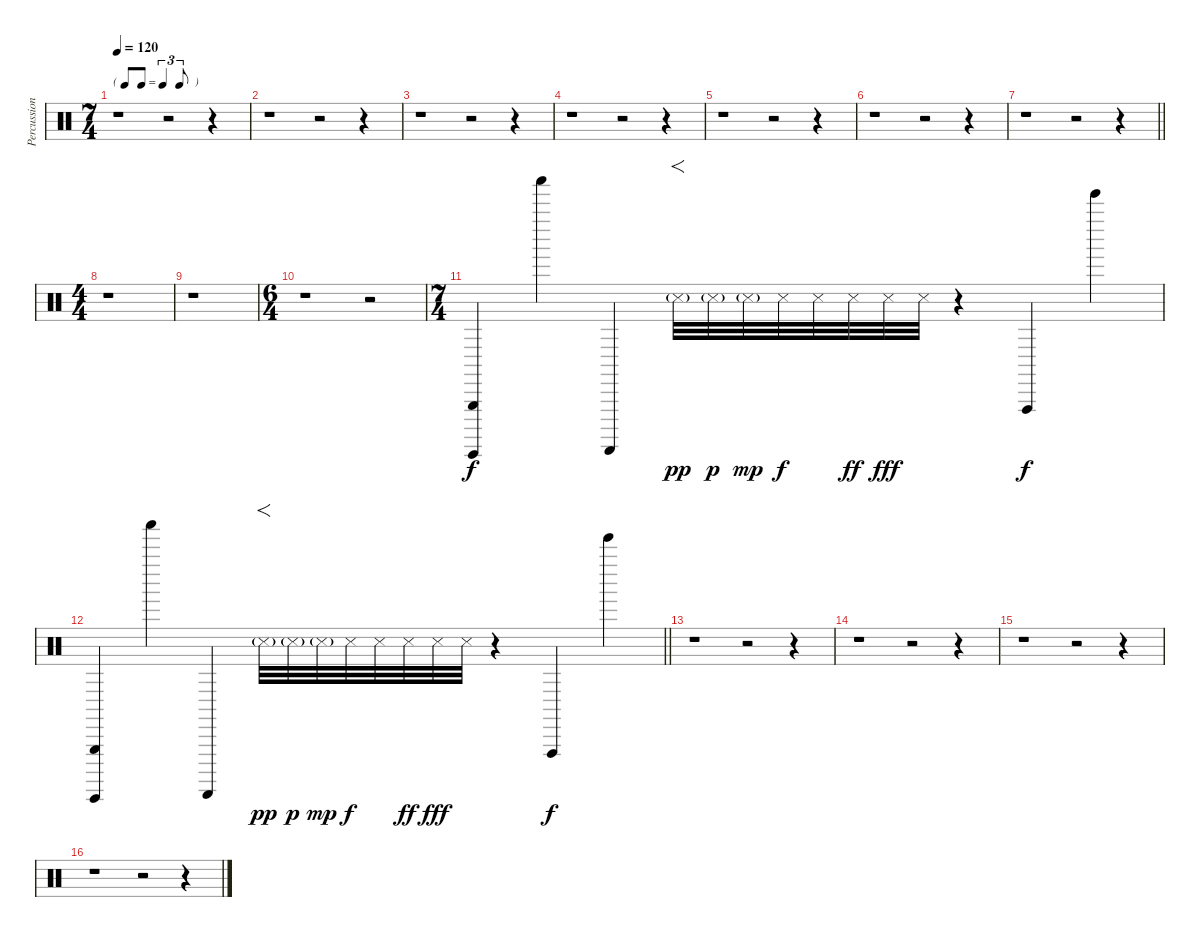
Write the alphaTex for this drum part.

\track ("Percussion" "Percussion") {instrument percussion}
\staff {score}
\articulation defaults
\ts (7 4)
\tf triplet8th
\tempo 120
\clef neutral
\ks c
r.1{dy f} r.2 r.4 |
r.1 r.2 r.4 |
r.1 r.2 r.4 |
r.1 r.2 r.4 |
r.1 r.2 r.4 |
r.1 r.2 r.4 |
\barLineRight lightlight
r.1 r.2 r.4 |
\ts (4 4)
r.1 |
r.1 |
\ts (6 4)
r.1 r.2 |
\ts (7 4)
("Triangle (hit)" "Guiro (hit)").4 "Shaker (hit)".4 "Guiro (scrap-return)".4 "Snare (side stick) 3"{g}.32{f dy pp} "Snare (side stick) 3"{g}.32{dy p} "Snare (side stick) 3"{g}.32{dy mp} "Snare (side stick) 3".32{dy f} "Snare (side stick) 3".32 "Snare (side stick) 3".32{dy ff} "Snare (side stick) 3".32{dy fff} "Snare (side stick) 3".32 r.4 "Vibraslap (hit)".4{dy f} "Tinkle Bell (hit)".4 |
\barLineRight lightlight
("Triangle (hit)" "Guiro (hit)").4 "Shaker (hit)".4 "Guiro (scrap-return)".4 "Snare (side stick) 3"{g}.32{f dy pp} "Snare (side stick) 3"{g}.32{dy p} "Snare (side stick) 3"{g}.32{dy mp} "Snare (side stick) 3".32{dy f} "Snare (side stick) 3".32 "Snare (side stick) 3".32{dy ff} "Snare (side stick) 3".32{dy fff} "Snare (side stick) 3".32 r.4 "Vibraslap (hit)".4{dy f} "Tinkle Bell (hit)".4 |
r.1 r.2 r.4 |
r.1 r.2 r.4 |
r.1 r.2 r.4 |
r.1 r.2 r.4
